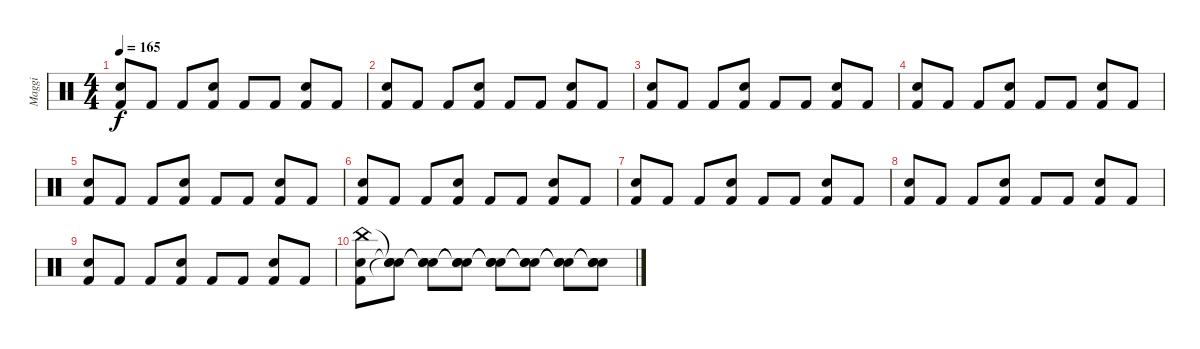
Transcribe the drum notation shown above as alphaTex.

\track ("Maggi" "Maggi") {instrument percussion}
\staff {score}
\articulation defaults
\ts (4 4)
\tempo 165
\clef neutral
\ks c
("Snare (hit) 2" "Kick (hit) 2").8{dy f} "Kick (hit) 2".8 "Kick (hit) 2".8 ("Snare (hit) 2" "Kick (hit) 2").8 "Kick (hit) 2".8 "Kick (hit) 2".8 ("Snare (hit) 2" "Kick (hit) 2").8 "Kick (hit) 2".8 |
("Snare (hit) 2" "Kick (hit) 2").8 "Kick (hit) 2".8 "Kick (hit) 2".8 ("Snare (hit) 2" "Kick (hit) 2").8 "Kick (hit) 2".8 "Kick (hit) 2".8 ("Snare (hit) 2" "Kick (hit) 2").8 "Kick (hit) 2".8 |
("Snare (hit) 2" "Kick (hit) 2").8 "Kick (hit) 2".8 "Kick (hit) 2".8 ("Snare (hit) 2" "Kick (hit) 2").8 "Kick (hit) 2".8 "Kick (hit) 2".8 ("Snare (hit) 2" "Kick (hit) 2").8 "Kick (hit) 2".8 |
("Snare (hit) 2" "Kick (hit) 2").8 "Kick (hit) 2".8 "Kick (hit) 2".8 ("Snare (hit) 2" "Kick (hit) 2").8 "Kick (hit) 2".8 "Kick (hit) 2".8 ("Snare (hit) 2" "Kick (hit) 2").8 "Kick (hit) 2".8 |
("Snare (hit) 2" "Kick (hit) 2").8 "Kick (hit) 2".8 "Kick (hit) 2".8 ("Snare (hit) 2" "Kick (hit) 2").8 "Kick (hit) 2".8 "Kick (hit) 2".8 ("Snare (hit) 2" "Kick (hit) 2").8 "Kick (hit) 2".8 |
("Snare (hit) 2" "Kick (hit) 2").8 "Kick (hit) 2".8 "Kick (hit) 2".8 ("Snare (hit) 2" "Kick (hit) 2").8 "Kick (hit) 2".8 "Kick (hit) 2".8 ("Snare (hit) 2" "Kick (hit) 2").8 "Kick (hit) 2".8 |
("Snare (hit) 2" "Kick (hit) 2").8 "Kick (hit) 2".8 "Kick (hit) 2".8 ("Snare (hit) 2" "Kick (hit) 2").8 "Kick (hit) 2".8 "Kick (hit) 2".8 ("Snare (hit) 2" "Kick (hit) 2").8 "Kick (hit) 2".8 |
("Snare (hit) 2" "Kick (hit) 2").8 "Kick (hit) 2".8 "Kick (hit) 2".8 ("Snare (hit) 2" "Kick (hit) 2").8 "Kick (hit) 2".8 "Kick (hit) 2".8 ("Snare (hit) 2" "Kick (hit) 2").8 "Kick (hit) 2".8 |
("Snare (hit) 2" "Kick (hit) 2").8 "Kick (hit) 2".8 "Kick (hit) 2".8 ("Snare (hit) 2" "Kick (hit) 2").8 "Kick (hit) 2".8 "Kick (hit) 2".8 ("Snare (hit) 2" "Kick (hit) 2").8 "Kick (hit) 2".8 |
("China (hit)" "Snare (hit) 2" "Kick (hit) 2").8 ("Snare (hit)"{t} "Snare (hit)"{t} "Snare (hit)"{t}).8 ("Snare (hit)"{t} "Snare (hit)"{t} "Snare (hit)"{t}).8 ("Snare (hit)"{t} "Snare (hit)"{t} "Snare (hit)"{t}).8 ("Snare (hit)"{t} "Snare (hit)"{t} "Snare (hit)"{t}).8 ("Snare (hit)"{t} "Snare (hit)"{t} "Snare (hit)"{t}).8 ("Snare (hit)"{t} "Snare (hit)"{t} "Snare (hit)"{t}).8 ("Snare (hit)"{t} "Snare (hit)"{t} "Snare (hit)"{t}).8
